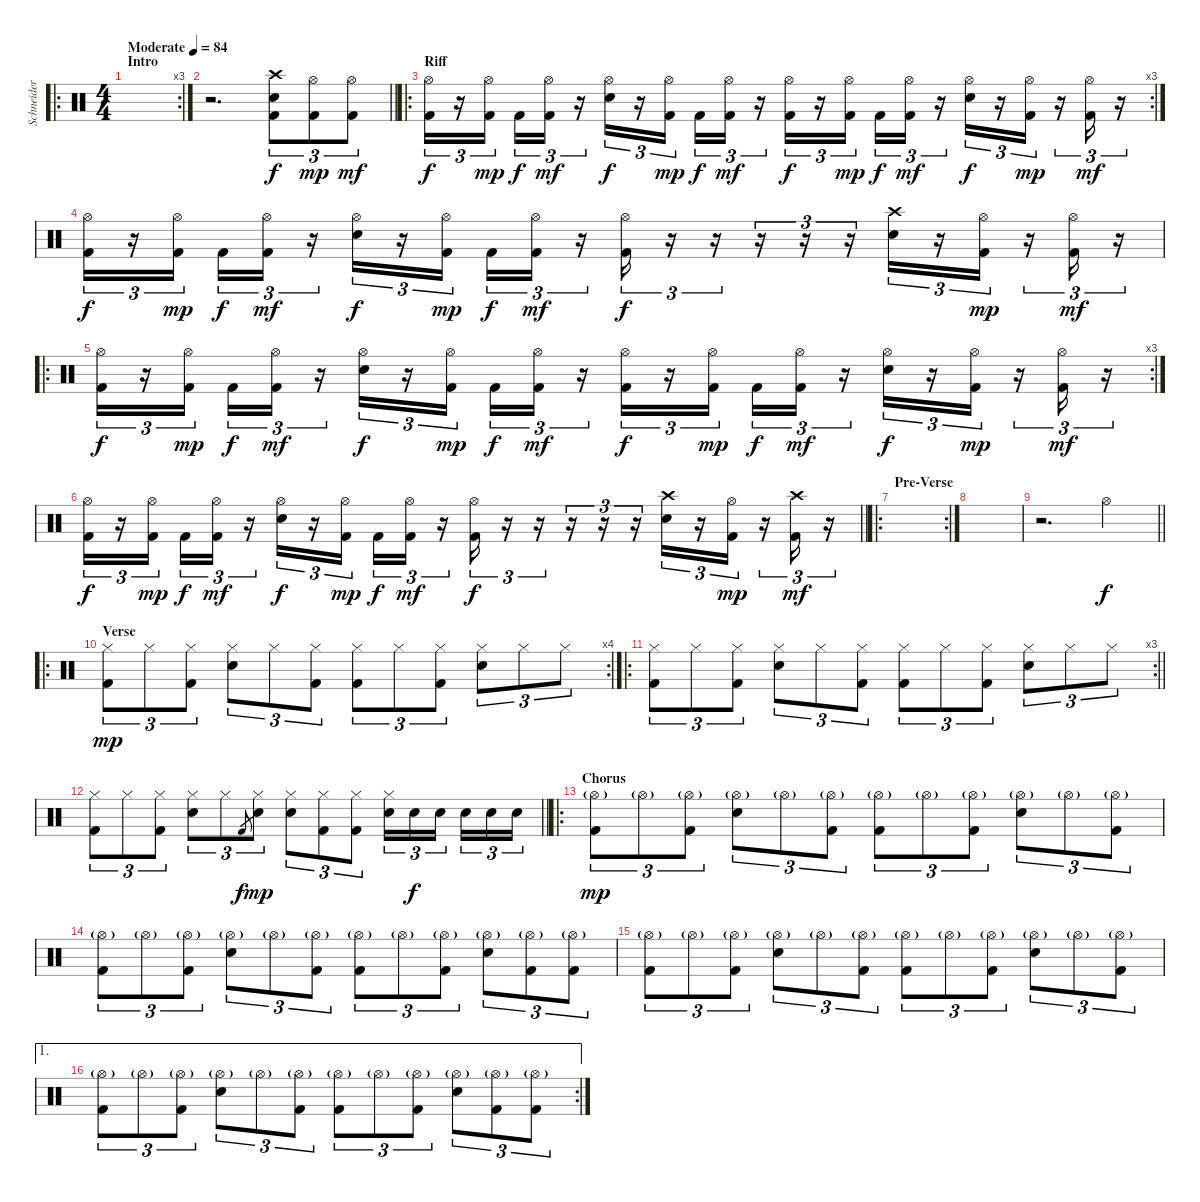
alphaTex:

\track ("Schneider" "Schneider") {instrument percussion}
\staff {score}
\articulation defaults
\ro
\rc 3
\ts (4 4)
\section ("" "Intro")
\tempo (84 "Moderate")
\clef neutral
\ks c
|
\barLineRight lightlight
r.2{d} ("Crash high (hit)" "Kick (hit) 2" "Electric Snare (hit)").8{tu (3 2)} ("Hi-Hat (open)" "Kick (hit) 2").8{tu (3 2) dy mp} ("Hi-Hat (open)" "Kick (hit) 2").8{tu (3 2) dy mf} |
\ro
\rc 3
\section ("" "Riff")
("Hi-Hat (open)" "Kick (hit) 2").16{tu (3 2) dy f} r.16{tu (3 2)} ("Hi-Hat (open)" "Kick (hit) 2").16{tu (3 2) dy mp beam splitsecondary} "Kick (hit) 2".16{tu (3 2) dy f} ("Hi-Hat (open)" "Kick (hit) 2").16{tu (3 2) dy mf} r.16{tu (3 2)} ("Hi-Hat (open)" "Electric Snare (hit)").16{tu (3 2) dy f} r.16{tu (3 2)} ("Hi-Hat (open)" "Kick (hit) 2").16{tu (3 2) dy mp beam splitsecondary} "Kick (hit) 2".16{tu (3 2) dy f} ("Hi-Hat (open)" "Kick (hit) 2").16{tu (3 2) dy mf} r.16{tu (3 2)} ("Hi-Hat (open)" "Kick (hit) 2").16{tu (3 2) dy f} r.16{tu (3 2)} ("Hi-Hat (open)" "Kick (hit) 2").16{tu (3 2) dy mp beam splitsecondary} "Kick (hit) 2".16{tu (3 2) dy f} ("Hi-Hat (open)" "Kick (hit) 2").16{tu (3 2) dy mf} r.16{tu (3 2)} ("Hi-Hat (open)" "Electric Snare (hit)").16{tu (3 2) dy f} r.16{tu (3 2)} ("Hi-Hat (open)" "Kick (hit) 2").16{tu (3 2) dy mp} r.16{tu (3 2)} ("Hi-Hat (open)" "Kick (hit) 2").16{tu (3 2) dy mf} r.16{tu (3 2)} |
("Hi-Hat (open)" "Kick (hit) 2").16{tu (3 2) dy f} r.16{tu (3 2)} ("Hi-Hat (open)" "Kick (hit) 2").16{tu (3 2) dy mp beam splitsecondary} "Kick (hit) 2".16{tu (3 2) dy f} ("Hi-Hat (open)" "Kick (hit) 2").16{tu (3 2) dy mf} r.16{tu (3 2)} ("Hi-Hat (open)" "Electric Snare (hit)").16{tu (3 2) dy f} r.16{tu (3 2)} ("Hi-Hat (open)" "Kick (hit) 2").16{tu (3 2) dy mp beam splitsecondary} "Kick (hit) 2".16{tu (3 2) dy f} ("Hi-Hat (open)" "Kick (hit) 2").16{tu (3 2) dy mf} r.16{tu (3 2)} ("Hi-Hat (open)" "Kick (hit) 2").16{tu (3 2) dy f} r.16{tu (3 2)} r.16{tu (3 2)} r.16{tu (3 2)} r.16{tu (3 2)} r.16{tu (3 2)} ("Crash high (hit)" "Electric Snare (hit)").16{tu (3 2)} r.16{tu (3 2)} ("Hi-Hat (open)" "Kick (hit) 2").16{tu (3 2) dy mp} r.16{tu (3 2)} ("Hi-Hat (open)" "Kick (hit) 2").16{tu (3 2) dy mf} r.16{tu (3 2)} |
\ro
\rc 3
("Hi-Hat (open)" "Kick (hit) 2").16{tu (3 2) dy f} r.16{tu (3 2)} ("Hi-Hat (open)" "Kick (hit) 2").16{tu (3 2) dy mp beam splitsecondary} "Kick (hit) 2".16{tu (3 2) dy f} ("Hi-Hat (open)" "Kick (hit) 2").16{tu (3 2) dy mf} r.16{tu (3 2)} ("Hi-Hat (open)" "Electric Snare (hit)").16{tu (3 2) dy f} r.16{tu (3 2)} ("Hi-Hat (open)" "Kick (hit) 2").16{tu (3 2) dy mp beam splitsecondary} "Kick (hit) 2".16{tu (3 2) dy f} ("Hi-Hat (open)" "Kick (hit) 2").16{tu (3 2) dy mf} r.16{tu (3 2)} ("Hi-Hat (open)" "Kick (hit) 2").16{tu (3 2) dy f} r.16{tu (3 2)} ("Hi-Hat (open)" "Kick (hit) 2").16{tu (3 2) dy mp beam splitsecondary} "Kick (hit) 2".16{tu (3 2) dy f} ("Hi-Hat (open)" "Kick (hit) 2").16{tu (3 2) dy mf} r.16{tu (3 2)} ("Hi-Hat (open)" "Electric Snare (hit)").16{tu (3 2) dy f} r.16{tu (3 2)} ("Hi-Hat (open)" "Kick (hit) 2").16{tu (3 2) dy mp} r.16{tu (3 2)} ("Hi-Hat (open)" "Kick (hit) 2").16{tu (3 2) dy mf} r.16{tu (3 2)} |
\barLineRight lightlight
("Hi-Hat (open)" "Kick (hit) 2").16{tu (3 2) dy f} r.16{tu (3 2)} ("Hi-Hat (open)" "Kick (hit) 2").16{tu (3 2) dy mp beam splitsecondary} "Kick (hit) 2".16{tu (3 2) dy f} ("Hi-Hat (open)" "Kick (hit) 2").16{tu (3 2) dy mf} r.16{tu (3 2)} ("Hi-Hat (open)" "Electric Snare (hit)").16{tu (3 2) dy f} r.16{tu (3 2)} ("Hi-Hat (open)" "Kick (hit) 2").16{tu (3 2) dy mp beam splitsecondary} "Kick (hit) 2".16{tu (3 2) dy f} ("Hi-Hat (open)" "Kick (hit) 2").16{tu (3 2) dy mf} r.16{tu (3 2)} ("Hi-Hat (open)" "Kick (hit) 2").16{tu (3 2) dy f} r.16{tu (3 2)} r.16{tu (3 2)} r.16{tu (3 2)} r.16{tu (3 2)} r.16{tu (3 2)} ("Crash high (hit)" "Electric Snare (hit)").16{tu (3 2)} r.16{tu (3 2)} ("Hi-Hat (open)" "Kick (hit) 2").16{tu (3 2) dy mp} r.16{tu (3 2)} ("Crash high (hit)" "Kick (hit) 2").16{tu (3 2) dy mf} r.16{tu (3 2)} |
\ro
\rc 2
\section ("" "Pre-Verse")
|
|
\barLineRight lightlight
r.2{d} "Hi-Hat (open)".4{dy f} |
\ro
\rc 4
\section ("" "Verse")
("Hi-Hat (closed)" "Kick (hit) 2").8{tu (3 2) dy mp} "Hi-Hat (closed)".8{tu (3 2)} ("Hi-Hat (closed)" "Kick (hit) 2").8{tu (3 2)} ("Hi-Hat (closed)" "Electric Snare (hit)").8{tu (3 2)} "Hi-Hat (closed)".8{tu (3 2)} ("Hi-Hat (closed)" "Kick (hit) 2").8{tu (3 2)} ("Hi-Hat (closed)" "Kick (hit) 2").8{tu (3 2)} "Hi-Hat (closed)".8{tu (3 2)} ("Hi-Hat (closed)" "Kick (hit) 2").8{tu (3 2)} ("Hi-Hat (closed)" "Electric Snare (hit)").8{tu (3 2)} "Hi-Hat (closed)".8{tu (3 2)} "Hi-Hat (closed)".8{tu (3 2)} |
\ro
\rc 3
\barLineRight lightlight
("Hi-Hat (closed)" "Kick (hit) 2").8{tu (3 2)} "Hi-Hat (closed)".8{tu (3 2)} ("Hi-Hat (closed)" "Kick (hit) 2").8{tu (3 2)} ("Hi-Hat (closed)" "Electric Snare (hit)").8{tu (3 2)} "Hi-Hat (closed)".8{tu (3 2)} ("Hi-Hat (closed)" "Kick (hit) 2").8{tu (3 2)} ("Hi-Hat (closed)" "Kick (hit) 2").8{tu (3 2)} "Hi-Hat (closed)".8{tu (3 2)} ("Hi-Hat (closed)" "Kick (hit) 2").8{tu (3 2)} ("Hi-Hat (closed)" "Electric Snare (hit)").8{tu (3 2)} "Hi-Hat (closed)".8{tu (3 2)} "Hi-Hat (closed)".8{tu (3 2)} |
\barLineRight lightlight
("Hi-Hat (closed)" "Kick (hit) 2").8{tu (3 2)} "Hi-Hat (closed)".8{tu (3 2)} ("Hi-Hat (closed)" "Kick (hit) 2").8{tu (3 2)} ("Hi-Hat (closed)" "Electric Snare (hit)").8{tu (3 2)} "Hi-Hat (closed)".8{tu (3 2)} "Kick (hit) 2".8{gr dy f} ("Hi-Hat (closed)" "Electric Snare (hit)").8{tu (3 2) dy mp} ("Hi-Hat (closed)" "Electric Snare (hit)").8{tu (3 2)} ("Hi-Hat (closed)" "Kick (hit) 2").8{tu (3 2)} ("Hi-Hat (closed)" "Kick (hit) 2").8{tu (3 2)} ("Hi-Hat (closed)" "Electric Snare (hit)").16{tu (3 2)} "Electric Snare (hit)".16{tu (3 2) dy f} "Electric Snare (hit)".16{tu (3 2) beam splitsecondary} "Electric Snare (hit)".16{tu (3 2)} "Electric Snare (hit)".16{tu (3 2)} "Electric Snare (hit)".16{tu (3 2)} |
\ro
\section ("" "Chorus")
("Hi-Hat (open)"{g} "Kick (hit) 2").8{tu (3 2) dy mp} "Hi-Hat (open)"{g}.8{tu (3 2)} ("Hi-Hat (open)"{g} "Kick (hit) 2").8{tu (3 2)} ("Hi-Hat (open)"{g} "Electric Snare (hit)").8{tu (3 2)} "Hi-Hat (open)"{g}.8{tu (3 2)} ("Hi-Hat (open)"{g} "Kick (hit) 2").8{tu (3 2)} ("Hi-Hat (open)"{g} "Kick (hit) 2").8{tu (3 2)} "Hi-Hat (open)"{g}.8{tu (3 2)} ("Hi-Hat (open)"{g} "Kick (hit) 2").8{tu (3 2)} ("Hi-Hat (open)"{g} "Electric Snare (hit)").8{tu (3 2)} "Hi-Hat (open)"{g}.8{tu (3 2)} ("Hi-Hat (open)"{g} "Kick (hit) 2").8{tu (3 2)} |
("Hi-Hat (open)"{g} "Kick (hit) 2").8{tu (3 2)} "Hi-Hat (open)"{g}.8{tu (3 2)} ("Hi-Hat (open)"{g} "Kick (hit) 2").8{tu (3 2)} ("Hi-Hat (open)"{g} "Electric Snare (hit)").8{tu (3 2)} "Hi-Hat (open)"{g}.8{tu (3 2)} ("Hi-Hat (open)"{g} "Kick (hit) 2").8{tu (3 2)} ("Hi-Hat (open)"{g} "Kick (hit) 2").8{tu (3 2)} "Hi-Hat (open)"{g}.8{tu (3 2)} ("Hi-Hat (open)"{g} "Kick (hit) 2").8{tu (3 2)} ("Hi-Hat (open)"{g} "Electric Snare (hit)").8{tu (3 2)} ("Hi-Hat (open)"{g} "Kick (hit) 2").8{tu (3 2)} ("Hi-Hat (open)"{g} "Kick (hit) 2").8{tu (3 2)} |
("Hi-Hat (open)"{g} "Kick (hit) 2").8{tu (3 2)} "Hi-Hat (open)"{g}.8{tu (3 2)} ("Hi-Hat (open)"{g} "Kick (hit) 2").8{tu (3 2)} ("Hi-Hat (open)"{g} "Electric Snare (hit)").8{tu (3 2)} "Hi-Hat (open)"{g}.8{tu (3 2)} ("Hi-Hat (open)"{g} "Kick (hit) 2").8{tu (3 2)} ("Hi-Hat (open)"{g} "Kick (hit) 2").8{tu (3 2)} "Hi-Hat (open)"{g}.8{tu (3 2)} ("Hi-Hat (open)"{g} "Kick (hit) 2").8{tu (3 2)} ("Hi-Hat (open)"{g} "Electric Snare (hit)").8{tu (3 2)} "Hi-Hat (open)"{g}.8{tu (3 2)} ("Hi-Hat (open)"{g} "Kick (hit) 2").8{tu (3 2)} |
\ae 1
\rc 2
("Hi-Hat (open)"{g} "Kick (hit) 2").8{tu (3 2)} "Hi-Hat (open)"{g}.8{tu (3 2)} ("Hi-Hat (open)"{g} "Kick (hit) 2").8{tu (3 2)} ("Hi-Hat (open)"{g} "Electric Snare (hit)").8{tu (3 2)} "Hi-Hat (open)"{g}.8{tu (3 2)} ("Hi-Hat (open)"{g} "Kick (hit) 2").8{tu (3 2)} ("Hi-Hat (open)"{g} "Kick (hit) 2").8{tu (3 2)} "Hi-Hat (open)"{g}.8{tu (3 2)} ("Hi-Hat (open)"{g} "Kick (hit) 2").8{tu (3 2)} ("Hi-Hat (open)"{g} "Electric Snare (hit)").8{tu (3 2)} ("Hi-Hat (open)"{g} "Kick (hit) 2").8{tu (3 2)} ("Hi-Hat (open)"{g} "Kick (hit) 2").8{tu (3 2)}
